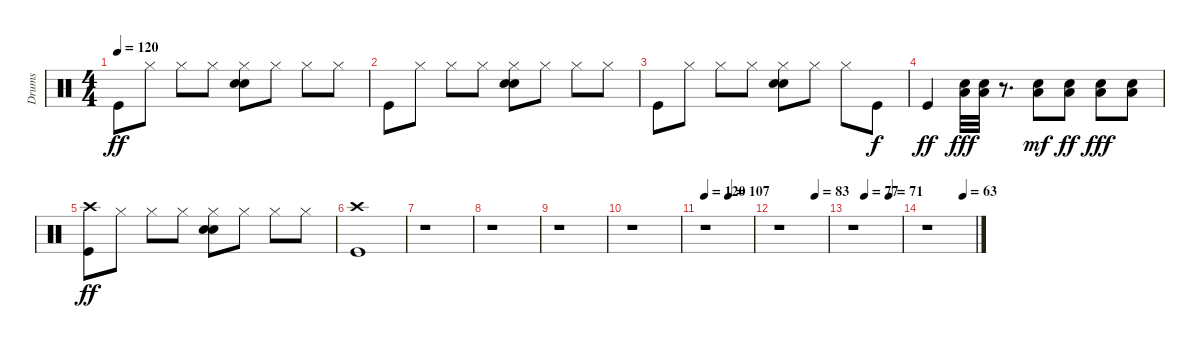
\track ("Drums" "Drums") {instrument percussion}
\staff {score}
\articulation defaults
\ts (4 4)
\tempo 120
\clef neutral
\ks c "Kick (hit)".8{dy ff} "Hi-Hat (closed)".8 "Hi-Hat (closed)".8 "Hi-Hat (closed)".8
("Electric Snare (hit)" "Hi-Hat (closed)" "Snare (hit) 2").8 "Hi-Hat (closed)".8 "Hi-Hat (closed)".8 "Hi-Hat (closed)".8 |
"Kick (hit)".8 "Hi-Hat (closed)".8 "Hi-Hat (closed)".8 "Hi-Hat (closed)".8 ("Electric Snare (hit)" "Hi-Hat (closed)" "Snare (hit) 2").8 "Hi-Hat (closed)".8 "Hi-Hat (closed)".8 "Hi-Hat (closed)".8 |
"Kick (hit)".8 "Hi-Hat (closed)".8 "Hi-Hat (closed)".8 "Hi-Hat (closed)".8 ("Electric Snare (hit)" "Hi-Hat (closed)" "Snare (hit) 2").8 "Hi-Hat (closed)".8 "Hi-Hat (closed)".8 "Kick (hit)".8{dy f} |
"Kick (hit)".4{dy ff} ("Low Tom (hit)" "Electric Snare (hit)").32{dy fff} ("Low Tom (hit)" "Electric Snare (hit)").32 r.8{d} ("Low Tom (hit)" "Electric Snare (hit)").8{dy mf} ("Low Tom (hit)" "Electric Snare (hit)").8{dy ff} ("Low Tom (hit)" "Electric Snare (hit)").8{dy fff} ("Low Floor Tom (hit)" "Electric Snare (hit)").8 |
("Crash high (hit)" "Kick (hit)").8{dy ff} "Hi-Hat (closed)".8 "Hi-Hat (closed)".8 "Hi-Hat (closed)".8 ("Electric Snare (hit)" "Hi-Hat (closed)" "Snare (hit) 2").8 "Hi-Hat (closed)".8 "Hi-Hat (closed)".8 "Hi-Hat (closed)".8 |
("Crash high (hit)" "Kick (hit)").1 |
r.1 |
r.1 |
r.1 |
r.1 |
\tempo 120
\tempo (107 0.5)
r.1 |
\tempo (83 0.75)
r.1 |
\tempo (77 0.25)
\tempo (71 0.75)
r.1 |
\tempo (63 0.75)
r.1
